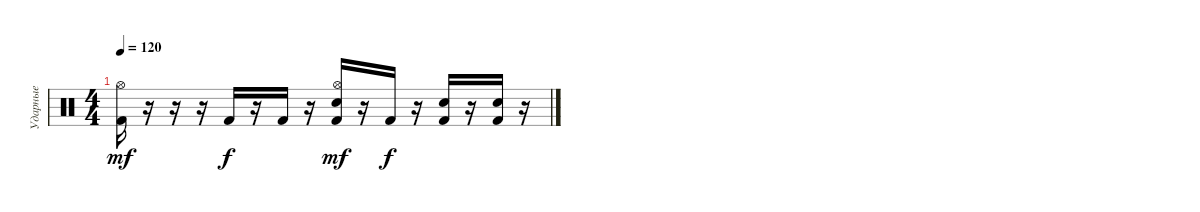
\track ("Ударные" "Ударные") {instrument percussion}
\staff {score}
\articulation defaults
\ts (4 4)
\tempo 120
\clef neutral
\ks c
("Kick (hit) 2" "Hi-Hat (open)").16{dy mf} r.16 r.16 r.16 "Kick (hit) 2".16{dy f} r.16 "Kick (hit) 2".16 r.16 ("Kick (hit) 2" "Hi-Hat (open)" "Snare (hit) 2").16{dy mf} r.16 "Kick (hit) 2".16{dy f} r.16 ("Kick (hit) 2" "Snare (hit) 2").16 r.16 ("Kick (hit) 2" "Snare (hit) 2").16 r.16
